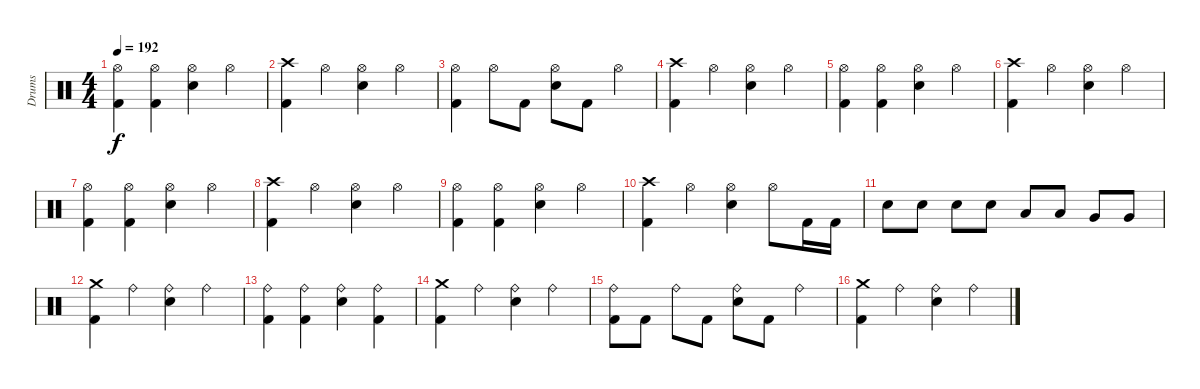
\track ("Drums" "Drums") {instrument percussion}
\staff {score}
\articulation defaults
\ts (4 4)
\tempo 192
\clef neutral
\ks c
("Hi-Hat (open)" "Kick (hit) 2").4{dy f} ("Hi-Hat (open)" "Kick (hit) 2").4 ("Hi-Hat (open)" "Electric Snare (hit)").4 "Hi-Hat (open)".4 |
("Crash high (hit)" "Kick (hit) 2").4 "Hi-Hat (open)".4 ("Hi-Hat (open)" "Electric Snare (hit)").4 "Hi-Hat (open)".4 |
("Hi-Hat (open)" "Kick (hit) 2").4 "Hi-Hat (open)".8 "Kick (hit) 2".8 ("Hi-Hat (open)" "Electric Snare (hit)").8 "Kick (hit) 2".8 "Hi-Hat (open)".4 |
("Crash high (hit)" "Kick (hit) 2").4 "Hi-Hat (open)".4 ("Hi-Hat (open)" "Electric Snare (hit)").4 "Hi-Hat (open)".4 |
("Hi-Hat (open)" "Kick (hit) 2").4 ("Hi-Hat (open)" "Kick (hit) 2").4 ("Hi-Hat (open)" "Electric Snare (hit)").4 "Hi-Hat (open)".4 |
("Crash high (hit)" "Kick (hit) 2").4 "Hi-Hat (open)".4 ("Hi-Hat (open)" "Electric Snare (hit)").4 "Hi-Hat (open)".4 |
("Hi-Hat (open)" "Kick (hit) 2").4 ("Hi-Hat (open)" "Kick (hit) 2").4 ("Hi-Hat (open)" "Electric Snare (hit)").4 "Hi-Hat (open)".4 |
("Crash high (hit)" "Kick (hit) 2").4 "Hi-Hat (open)".4 ("Hi-Hat (open)" "Electric Snare (hit)").4 "Hi-Hat (open)".4 |
("Hi-Hat (open)" "Kick (hit) 2").4 ("Hi-Hat (open)" "Kick (hit) 2").4 ("Hi-Hat (open)" "Electric Snare (hit)").4 "Hi-Hat (open)".4 |
("Crash high (hit)" "Kick (hit) 2").4 "Hi-Hat (open)".4 ("Hi-Hat (open)" "Electric Snare (hit)").4 "Hi-Hat (open)".8 "Kick (hit) 2".16 "Kick (hit) 2".16 |
"Electric Snare (hit)".8 "Electric Snare (hit)".8 "Electric Snare (hit)".8 "Electric Snare (hit)".8 "Low Tom (hit)".8 "Low Tom (hit)".8 "Very Low Tom (hit)".8 "Very Low Tom (hit)".8 |
("Crash medium (hit)" "Kick (hit) 2").4 "Ride (bell)".4 ("Ride (bell)" "Electric Snare (hit)").4 "Ride (bell)".4 |
("Ride (bell)" "Kick (hit) 2").4 ("Ride (bell)" "Kick (hit) 2").4 ("Ride (bell)" "Electric Snare (hit)").4 ("Ride (bell)" "Kick (hit) 2").4 |
("Crash medium (hit)" "Kick (hit) 2").4 "Ride (bell)".4 ("Ride (bell)" "Electric Snare (hit)").4 "Ride (bell)".4 |
("Ride (bell)" "Kick (hit) 2").8 "Kick (hit) 2".8 "Ride (bell)".8 "Kick (hit) 2".8 ("Ride (bell)" "Electric Snare (hit)").8 "Kick (hit) 2".8 "Ride (bell)".4 |
("Crash medium (hit)" "Kick (hit) 2").4 "Ride (bell)".4 ("Ride (bell)" "Electric Snare (hit)").4 "Ride (bell)".4
